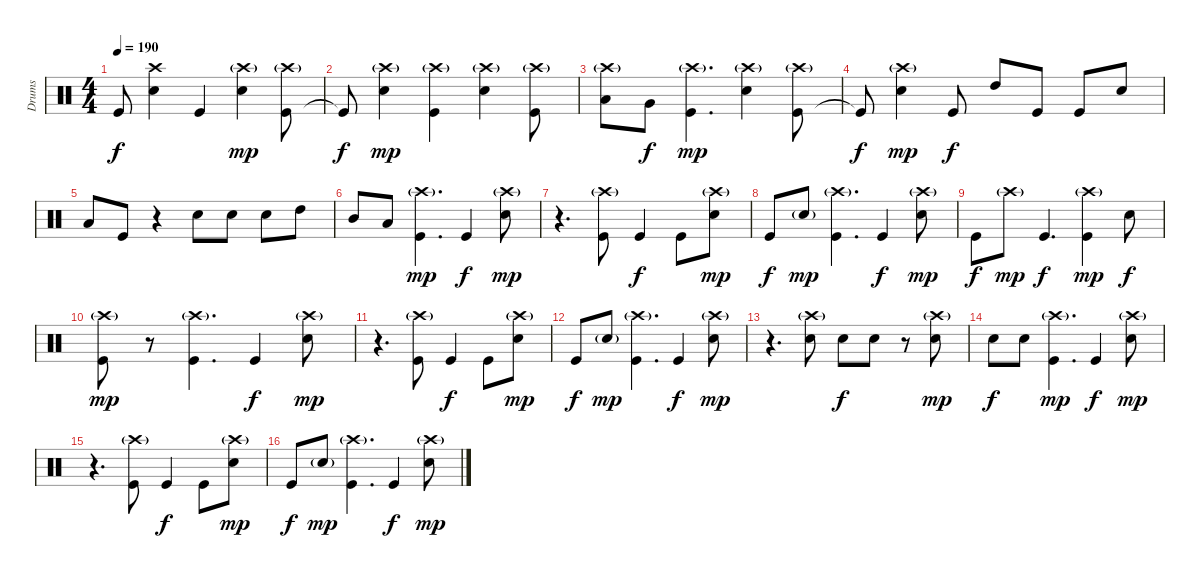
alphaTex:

\track ("Drums" "Drums") {instrument percussion}
\staff {score}
\articulation defaults
\ts (4 4)
\tempo 190
\clef neutral
\ks c "Kick (hit)"{t}.8{dy f}
("Electric Snare (hit)" "Crash high (hit)").4 "Kick (hit)".4 ("Electric Snare (hit)" "Crash high (hit)"{g}).4{dy mp} ("Kick (hit)" "Crash high (hit)"{g}).8 |
"Kick (hit)"{t}.8{dy f} ("Electric Snare (hit)" "Crash high (hit)"{g}).4{dy mp} ("Kick (hit)" "Crash high (hit)"{g}).4 ("Electric Snare (hit)" "Crash high (hit)"{g}).4 ("Kick (hit)" "Crash high (hit)"{g}).8 |
("Low Tom (hit)" "Crash high (hit)"{g}).8 "Very Low Tom (hit)".8{dy f} ("Kick (hit)" "Crash high (hit)"{g}).4{d dy mp} ("Electric Snare (hit)" "Crash high (hit)"{g}).4 ("Kick (hit)" "Crash high (hit)"{g}).8 |
"Kick (hit)"{t}.8{dy f} ("Electric Snare (hit)" "Crash high (hit)"{g}).4{dy mp} "Kick (hit)".8{dy f} "High Tom (hit)".8 "Kick (hit)".8 "Kick (hit)".8 "Electric Snare (hit)".8 |
"Low Tom (hit)".8 "Kick (hit)".8 r.4 "Electric Snare (hit)".8 "Electric Snare (hit)".8 "Electric Snare (hit)".8 "High Tom (hit)".8 |
"Mid Tom (hit)".8 "Low Tom (hit)".8 ("Kick (hit)" "Crash high (hit)"{g}).4{d dy mp} "Kick (hit)".4{dy f} ("Electric Snare (hit)" "Crash high (hit)"{g}).8{dy mp} |
r.4{d} ("Kick (hit)" "Crash high (hit)"{g}).8 "Kick (hit)".4{dy f} "Kick (hit)".8 ("Electric Snare (hit)" "Crash high (hit)"{g}).8{dy mp} |
"Kick (hit)".8{dy f} "Electric Snare (hit)"{g}.8{dy mp} ("Kick (hit)" "Crash high (hit)"{g}).4{d} "Kick (hit)".4{dy f} ("Electric Snare (hit)" "Crash high (hit)"{g}).8{dy mp} |
"Kick (hit)".8{dy f} "Crash high (hit)"{g}.8{dy mp} "Kick (hit)".4{d dy f} ("Kick (hit)" "Crash high (hit)"{g}).4{dy mp} "Electric Snare (hit)".8{dy f} |
("Kick (hit)" "Crash high (hit)"{g}).8{dy mp} r.8 ("Kick (hit)" "Crash high (hit)"{g}).4{d} "Kick (hit)".4{dy f} ("Electric Snare (hit)" "Crash high (hit)"{g}).8{dy mp} |
r.4{d} ("Kick (hit)" "Crash high (hit)"{g}).8 "Kick (hit)".4{dy f} "Kick (hit)".8 ("Electric Snare (hit)" "Crash high (hit)"{g}).8{dy mp} |
"Kick (hit)".8{dy f} "Electric Snare (hit)"{g}.8{dy mp} ("Kick (hit)" "Crash high (hit)"{g}).4{d} "Kick (hit)".4{dy f} ("Electric Snare (hit)" "Crash high (hit)"{g}).8{dy mp} |
r.4{d} ("Electric Snare (hit)" "Crash high (hit)"{g}).8 "Electric Snare (hit)".8{dy f} "Electric Snare (hit)".8 r.8 ("Electric Snare (hit)" "Crash high (hit)"{g}).8{dy mp} |
"Electric Snare (hit)".8{dy f} "Electric Snare (hit)".8 ("Kick (hit)" "Crash high (hit)"{g}).4{d dy mp} "Kick (hit)".4{dy f} ("Electric Snare (hit)" "Crash high (hit)"{g}).8{dy mp} |
r.4{d} ("Kick (hit)" "Crash high (hit)"{g}).8 "Kick (hit)".4{dy f} "Kick (hit)".8 ("Electric Snare (hit)" "Crash high (hit)"{g}).8{dy mp} |
"Kick (hit)".8{dy f} "Electric Snare (hit)"{g}.8{dy mp} ("Kick (hit)" "Crash high (hit)"{g}).4{d} "Kick (hit)".4{dy f} ("Electric Snare (hit)" "Crash high (hit)"{g}).8{dy mp}
